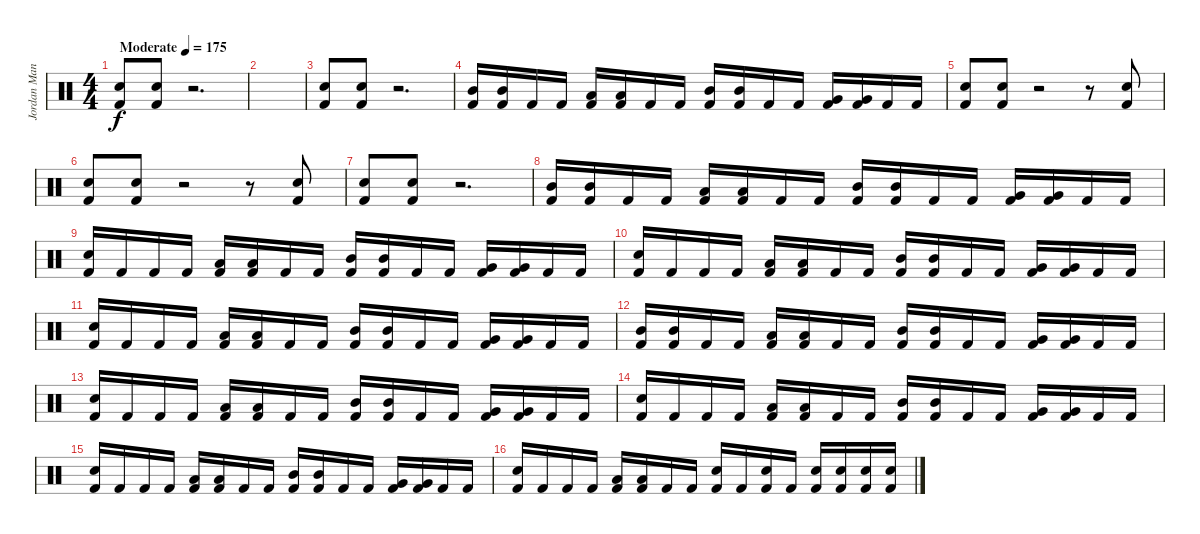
\track ("Jordan Mancini" "Jordan Man") {instrument percussion}
\staff {score}
\articulation defaults
\ts (4 4)
\tempo (175 "Moderate")
\clef neutral
\ks c
("Snare (hit) 2" "Kick (hit) 2").8{dy f} ("Snare (hit) 2" "Kick (hit) 2").8 r.2{d} |
|
("Snare (hit) 2" "Kick (hit) 2").8 ("Snare (hit) 2" "Kick (hit) 2").8 r.2{d} |
("Mid Tom (hit)" "Kick (hit) 2").16 ("Mid Tom (hit)" "Kick (hit) 2").16 "Kick (hit) 2".16 "Kick (hit) 2".16 ("Low Tom (hit)" "Kick (hit) 2").16 ("Low Tom (hit)" "Kick (hit) 2").16 "Kick (hit) 2".16 "Kick (hit) 2".16 ("Mid Tom (hit)" "Kick (hit) 2").16 ("Mid Tom (hit)" "Kick (hit) 2").16 "Kick (hit) 2".16 "Kick (hit) 2".16 ("Very Low Tom (hit)" "Kick (hit) 2").16 ("Very Low Tom (hit)" "Kick (hit) 2").16 "Kick (hit) 2".16 "Kick (hit) 2".16 |
("Snare (hit) 2" "Kick (hit) 2").8 ("Snare (hit) 2" "Kick (hit) 2").8 r.2 r.8 ("Snare (hit) 2" "Kick (hit) 2").8 |
("Snare (hit) 2" "Kick (hit) 2").8 ("Snare (hit) 2" "Kick (hit) 2").8 r.2 r.8 ("Snare (hit) 2" "Kick (hit) 2").8 |
("Snare (hit) 2" "Kick (hit) 2").8 ("Snare (hit) 2" "Kick (hit) 2").8 r.2{d} |
("Mid Tom (hit)" "Kick (hit) 2").16 ("Mid Tom (hit)" "Kick (hit) 2").16 "Kick (hit) 2".16 "Kick (hit) 2".16 ("Low Tom (hit)" "Kick (hit) 2").16 ("Low Tom (hit)" "Kick (hit) 2").16 "Kick (hit) 2".16 "Kick (hit) 2".16 ("Mid Tom (hit)" "Kick (hit) 2").16 ("Mid Tom (hit)" "Kick (hit) 2").16 "Kick (hit) 2".16 "Kick (hit) 2".16 ("Very Low Tom (hit)" "Kick (hit) 2").16 ("Very Low Tom (hit)" "Kick (hit) 2").16 "Kick (hit) 2".16 "Kick (hit) 2".16 |
("Snare (hit) 2" "Kick (hit) 2").16 "Kick (hit) 2".16 "Kick (hit) 2".16 "Kick (hit) 2".16 ("Low Tom (hit)" "Kick (hit) 2").16 ("Low Tom (hit)" "Kick (hit) 2").16 "Kick (hit) 2".16 "Kick (hit) 2".16 ("Mid Tom (hit)" "Kick (hit) 2").16 ("Mid Tom (hit)" "Kick (hit) 2").16 "Kick (hit) 2".16 "Kick (hit) 2".16 ("Very Low Tom (hit)" "Kick (hit) 2").16 ("Very Low Tom (hit)" "Kick (hit) 2").16 "Kick (hit) 2".16 "Kick (hit) 2".16 |
("Snare (hit) 2" "Kick (hit) 2").16 "Kick (hit) 2".16 "Kick (hit) 2".16 "Kick (hit) 2".16 ("Low Tom (hit)" "Kick (hit) 2").16 ("Low Tom (hit)" "Kick (hit) 2").16 "Kick (hit) 2".16 "Kick (hit) 2".16 ("Mid Tom (hit)" "Kick (hit) 2").16 ("Mid Tom (hit)" "Kick (hit) 2").16 "Kick (hit) 2".16 "Kick (hit) 2".16 ("Very Low Tom (hit)" "Kick (hit) 2").16 ("Very Low Tom (hit)" "Kick (hit) 2").16 "Kick (hit) 2".16 "Kick (hit) 2".16 |
("Snare (hit) 2" "Kick (hit) 2").16 "Kick (hit) 2".16 "Kick (hit) 2".16 "Kick (hit) 2".16 ("Low Tom (hit)" "Kick (hit) 2").16 ("Low Tom (hit)" "Kick (hit) 2").16 "Kick (hit) 2".16 "Kick (hit) 2".16 ("Mid Tom (hit)" "Kick (hit) 2").16 ("Mid Tom (hit)" "Kick (hit) 2").16 "Kick (hit) 2".16 "Kick (hit) 2".16 ("Very Low Tom (hit)" "Kick (hit) 2").16 ("Very Low Tom (hit)" "Kick (hit) 2").16 "Kick (hit) 2".16 "Kick (hit) 2".16 |
("Mid Tom (hit)" "Kick (hit) 2").16 ("Mid Tom (hit)" "Kick (hit) 2").16 "Kick (hit) 2".16 "Kick (hit) 2".16 ("Low Tom (hit)" "Kick (hit) 2").16 ("Low Tom (hit)" "Kick (hit) 2").16 "Kick (hit) 2".16 "Kick (hit) 2".16 ("Mid Tom (hit)" "Kick (hit) 2").16 ("Mid Tom (hit)" "Kick (hit) 2").16 "Kick (hit) 2".16 "Kick (hit) 2".16 ("Very Low Tom (hit)" "Kick (hit) 2").16 ("Very Low Tom (hit)" "Kick (hit) 2").16 "Kick (hit) 2".16 "Kick (hit) 2".16 |
("Snare (hit) 2" "Kick (hit) 2").16 "Kick (hit) 2".16 "Kick (hit) 2".16 "Kick (hit) 2".16 ("Low Tom (hit)" "Kick (hit) 2").16 ("Low Tom (hit)" "Kick (hit) 2").16 "Kick (hit) 2".16 "Kick (hit) 2".16 ("Mid Tom (hit)" "Kick (hit) 2").16 ("Mid Tom (hit)" "Kick (hit) 2").16 "Kick (hit) 2".16 "Kick (hit) 2".16 ("Very Low Tom (hit)" "Kick (hit) 2").16 ("Very Low Tom (hit)" "Kick (hit) 2").16 "Kick (hit) 2".16 "Kick (hit) 2".16 |
("Snare (hit) 2" "Kick (hit) 2").16 "Kick (hit) 2".16 "Kick (hit) 2".16 "Kick (hit) 2".16 ("Low Tom (hit)" "Kick (hit) 2").16 ("Low Tom (hit)" "Kick (hit) 2").16 "Kick (hit) 2".16 "Kick (hit) 2".16 ("Mid Tom (hit)" "Kick (hit) 2").16 ("Mid Tom (hit)" "Kick (hit) 2").16 "Kick (hit) 2".16 "Kick (hit) 2".16 ("Very Low Tom (hit)" "Kick (hit) 2").16 ("Very Low Tom (hit)" "Kick (hit) 2").16 "Kick (hit) 2".16 "Kick (hit) 2".16 |
("Snare (hit) 2" "Kick (hit) 2").16 "Kick (hit) 2".16 "Kick (hit) 2".16 "Kick (hit) 2".16 ("Low Tom (hit)" "Kick (hit) 2").16 ("Low Tom (hit)" "Kick (hit) 2").16 "Kick (hit) 2".16 "Kick (hit) 2".16 ("Mid Tom (hit)" "Kick (hit) 2").16 ("Mid Tom (hit)" "Kick (hit) 2").16 "Kick (hit) 2".16 "Kick (hit) 2".16 ("Very Low Tom (hit)" "Kick (hit) 2").16 ("Very Low Tom (hit)" "Kick (hit) 2").16 "Kick (hit) 2".16 "Kick (hit) 2".16 |
("Snare (hit) 2" "Kick (hit) 2").16 "Kick (hit) 2".16 "Kick (hit) 2".16 "Kick (hit) 2".16 ("Low Tom (hit)" "Kick (hit) 2").16 ("Low Tom (hit)" "Kick (hit) 2").16 "Kick (hit) 2".16 "Kick (hit) 2".16 ("Snare (hit) 2" "Kick (hit) 2").16 "Kick (hit) 2".16 ("Snare (hit) 2" "Kick (hit) 2").16 "Kick (hit) 2".16 ("Snare (hit) 2" "Kick (hit) 2").16 ("Snare (hit) 2" "Kick (hit) 2").16 ("Snare (hit) 2" "Kick (hit) 2").16 ("Snare (hit) 2" "Kick (hit) 2").16
